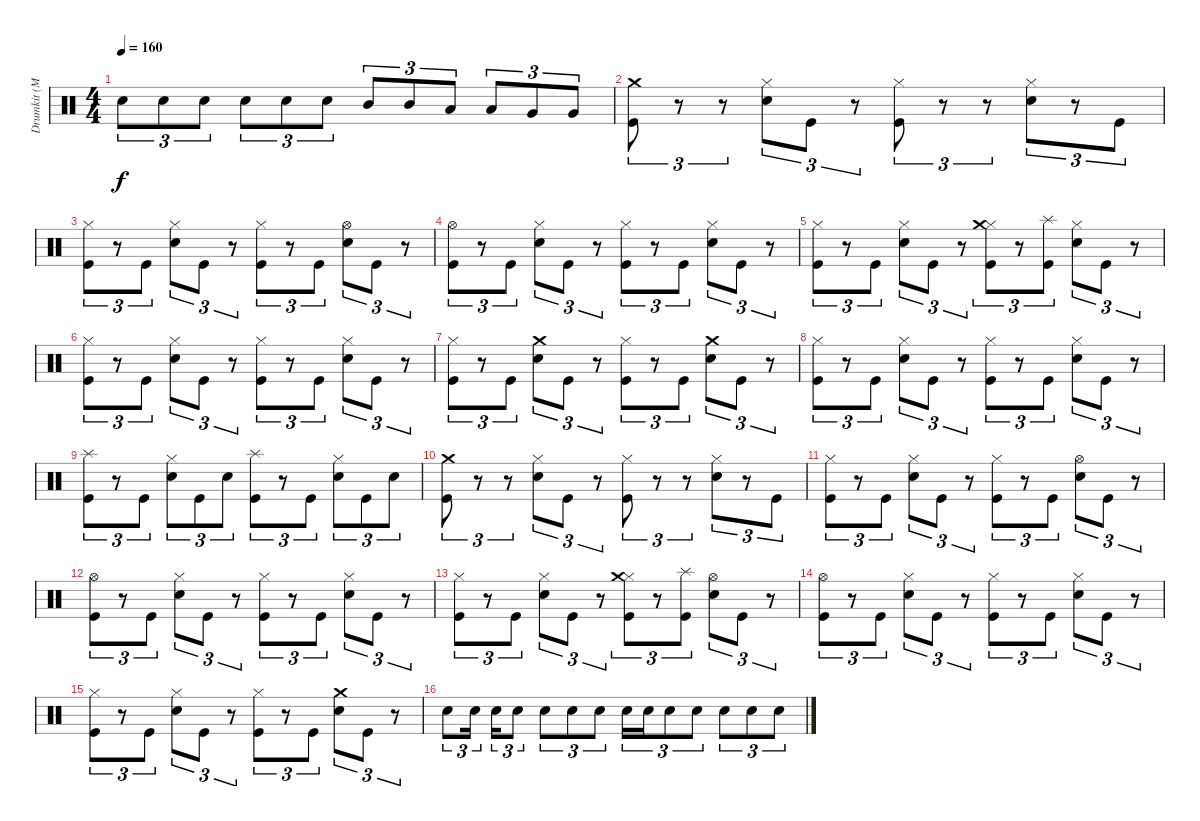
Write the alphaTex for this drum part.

\track ("Drumkit (McBrain)" "Drumkit (M") {instrument percussion}
\staff {score}
\articulation defaults
\ts (4 4)
\tempo 160
\clef neutral
\ks c "Snare (hit) 2".8{tu (3 2) dy f} "Snare (hit) 2".8{tu (3 2)} "Snare (hit) 2".8{tu (3 2)} "Snare (hit) 2".8{tu (3 2)} "Snare (hit) 2".8{tu (3 2)} "Snare (hit) 2".8{tu (3 2)} "Mid Tom (hit)".8{tu (3 2)} "Mid Tom (hit)".8{tu (3 2)} "Low Tom (hit)".8{tu (3 2)} "Low Tom (hit)".8{tu (3 2)} "Very Low Tom (hit)".8{tu (3 2)} "Very Low Tom (hit)".8{tu (3 2)}
|
("Crash medium (hit)" "Kick (hit)").8{tu (3 2)} r.8{tu (3 2)} r.8{tu (3 2)} ("Hi-Hat (closed)" "Snare (hit) 2").8{tu (3 2)} "Kick (hit)".8{tu (3 2)} r.8{tu (3 2)} ("Hi-Hat (closed)" "Kick (hit)").8{tu (3 2)} r.8{tu (3 2)} r.8{tu (3 2)} ("Hi-Hat (closed)" "Snare (hit) 2").8{tu (3 2)} r.8{tu (3 2)} "Kick (hit)".8{tu (3 2)} |
("Hi-Hat (closed)" "Kick (hit)").8{tu (3 2)} r.8{tu (3 2)} "Kick (hit)".8{tu (3 2)} ("Hi-Hat (closed)" "Snare (hit) 2").8{tu (3 2)} "Kick (hit)".8{tu (3 2)} r.8{tu (3 2)} ("Hi-Hat (closed)" "Kick (hit)").8{tu (3 2)} r.8{tu (3 2)} "Kick (hit)".8{tu (3 2)} ("Snare (hit) 2" "Hi-Hat (open)").8{tu (3 2)} "Kick (hit)".8{tu (3 2)} r.8{tu (3 2)} |
("Hi-Hat (open)" "Kick (hit)").8{tu (3 2)} r.8{tu (3 2)} "Kick (hit)".8{tu (3 2)} ("Hi-Hat (closed)" "Snare (hit) 2").8{tu (3 2)} "Kick (hit)".8{tu (3 2)} r.8{tu (3 2)} ("Hi-Hat (closed)" "Kick (hit)").8{tu (3 2)} r.8{tu (3 2)} "Kick (hit)".8{tu (3 2)} ("Hi-Hat (closed)" "Snare (hit) 2").8{tu (3 2)} "Kick (hit)".8{tu (3 2)} r.8{tu (3 2)} |
("Hi-Hat (closed)" "Kick (hit)").8{tu (3 2)} r.8{tu (3 2)} "Kick (hit)".8{tu (3 2)} ("Hi-Hat (closed)" "Snare (hit) 2").8{tu (3 2)} "Kick (hit)".8{tu (3 2)} r.8{tu (3 2)} ("Hi-Hat (closed)" "Kick (hit)" "Crash medium (hit)").8{tu (3 2)} r.8{tu (3 2)} ("Kick (hit)" "Splash (hit)").8{tu (3 2)} ("Hi-Hat (closed)" "Snare (hit) 2").8{tu (3 2)} "Kick (hit)".8{tu (3 2)} r.8{tu (3 2)} |
("Hi-Hat (closed)" "Kick (hit)").8{tu (3 2)} r.8{tu (3 2)} "Kick (hit)".8{tu (3 2)} ("Hi-Hat (closed)" "Snare (hit) 2").8{tu (3 2)} "Kick (hit)".8{tu (3 2)} r.8{tu (3 2)} ("Hi-Hat (closed)" "Kick (hit)").8{tu (3 2)} r.8{tu (3 2)} "Kick (hit)".8{tu (3 2)} ("Hi-Hat (closed)" "Snare (hit) 2").8{tu (3 2)} "Kick (hit)".8{tu (3 2)} r.8{tu (3 2)} |
("Hi-Hat (closed)" "Kick (hit)").8{tu (3 2)} r.8{tu (3 2)} "Kick (hit)".8{tu (3 2)} ("Snare (hit) 2" "Crash medium (hit)").8{tu (3 2)} "Kick (hit)".8{tu (3 2)} r.8{tu (3 2)} ("Hi-Hat (closed)" "Kick (hit)").8{tu (3 2)} r.8{tu (3 2)} "Kick (hit)".8{tu (3 2)} ("Snare (hit) 2" "Crash medium (hit)").8{tu (3 2)} "Kick (hit)".8{tu (3 2)} r.8{tu (3 2)} |
("Hi-Hat (closed)" "Kick (hit)").8{tu (3 2)} r.8{tu (3 2)} "Kick (hit)".8{tu (3 2)} ("Hi-Hat (closed)" "Snare (hit) 2").8{tu (3 2)} "Kick (hit)".8{tu (3 2)} r.8{tu (3 2)} ("Hi-Hat (closed)" "Kick (hit)").8{tu (3 2)} r.8{tu (3 2)} "Kick (hit)".8{tu (3 2)} ("Hi-Hat (closed)" "Snare (hit) 2").8{tu (3 2)} "Kick (hit)".8{tu (3 2)} r.8{tu (3 2)} |
("Kick (hit)" "Splash (hit)").8{tu (3 2)} r.8{tu (3 2)} "Kick (hit)".8{tu (3 2)} ("Hi-Hat (closed)" "Snare (hit) 2").8{tu (3 2)} "Kick (hit)".8{tu (3 2)} "Snare (hit) 2".8{tu (3 2)} ("Kick (hit)" "Splash (hit)").8{tu (3 2)} r.8{tu (3 2)} "Kick (hit)".8{tu (3 2)} ("Hi-Hat (closed)" "Snare (hit) 2").8{tu (3 2)} "Kick (hit)".8{tu (3 2)} "Snare (hit) 2".8{tu (3 2)} |
("Crash medium (hit)" "Kick (hit)").8{tu (3 2)} r.8{tu (3 2)} r.8{tu (3 2)} ("Hi-Hat (closed)" "Snare (hit) 2").8{tu (3 2)} "Kick (hit)".8{tu (3 2)} r.8{tu (3 2)} ("Hi-Hat (closed)" "Kick (hit)").8{tu (3 2)} r.8{tu (3 2)} r.8{tu (3 2)} ("Hi-Hat (closed)" "Snare (hit) 2").8{tu (3 2)} r.8{tu (3 2)} "Kick (hit)".8{tu (3 2)} |
("Hi-Hat (closed)" "Kick (hit)").8{tu (3 2)} r.8{tu (3 2)} "Kick (hit)".8{tu (3 2)} ("Hi-Hat (closed)" "Snare (hit) 2").8{tu (3 2)} "Kick (hit)".8{tu (3 2)} r.8{tu (3 2)} ("Hi-Hat (closed)" "Kick (hit)").8{tu (3 2)} r.8{tu (3 2)} "Kick (hit)".8{tu (3 2)} ("Snare (hit) 2" "Hi-Hat (open)").8{tu (3 2)} "Kick (hit)".8{tu (3 2)} r.8{tu (3 2)} |
("Hi-Hat (open)" "Kick (hit)").8{tu (3 2)} r.8{tu (3 2)} "Kick (hit)".8{tu (3 2)} ("Hi-Hat (closed)" "Snare (hit) 2").8{tu (3 2)} "Kick (hit)".8{tu (3 2)} r.8{tu (3 2)} ("Hi-Hat (closed)" "Kick (hit)").8{tu (3 2)} r.8{tu (3 2)} "Kick (hit)".8{tu (3 2)} ("Hi-Hat (closed)" "Snare (hit) 2").8{tu (3 2)} "Kick (hit)".8{tu (3 2)} r.8{tu (3 2)} |
("Hi-Hat (closed)" "Kick (hit)").8{tu (3 2)} r.8{tu (3 2)} "Kick (hit)".8{tu (3 2)} ("Hi-Hat (closed)" "Snare (hit) 2").8{tu (3 2)} "Kick (hit)".8{tu (3 2)} r.8{tu (3 2)} ("Hi-Hat (closed)" "Kick (hit)" "Crash medium (hit)").8{tu (3 2)} r.8{tu (3 2)} ("Kick (hit)" "Splash (hit)").8{tu (3 2)} ("Hi-Hat (open)" "Snare (hit) 2").8{tu (3 2)} "Kick (hit)".8{tu (3 2)} r.8{tu (3 2)} |
("Hi-Hat (open)" "Kick (hit)").8{tu (3 2)} r.8{tu (3 2)} "Kick (hit)".8{tu (3 2)} ("Hi-Hat (closed)" "Snare (hit) 2").8{tu (3 2)} "Kick (hit)".8{tu (3 2)} r.8{tu (3 2)} ("Hi-Hat (closed)" "Kick (hit)").8{tu (3 2)} r.8{tu (3 2)} "Kick (hit)".8{tu (3 2)} ("Hi-Hat (closed)" "Snare (hit) 2").8{tu (3 2)} "Kick (hit)".8{tu (3 2)} r.8{tu (3 2)} |
("Hi-Hat (closed)" "Kick (hit)").8{tu (3 2)} r.8{tu (3 2)} "Kick (hit)".8{tu (3 2)} ("Snare (hit) 2" "Hi-Hat (closed)").8{tu (3 2)} "Kick (hit)".8{tu (3 2)} r.8{tu (3 2)} ("Hi-Hat (closed)" "Kick (hit)").8{tu (3 2)} r.8{tu (3 2)} "Kick (hit)".8{tu (3 2)} ("Snare (hit) 2" "Crash medium (hit)").8{tu (3 2)} "Kick (hit)".8{tu (3 2)} r.8{tu (3 2)} |
"Snare (hit) 2".8{tu (3 2)} "Snare (hit) 2".16{tu (3 2)} "Snare (hit) 2".16{tu (3 2)} "Snare (hit) 2".8{tu (3 2)} "Snare (hit) 2".8{tu (3 2)} "Snare (hit) 2".8{tu (3 2)} "Snare (hit) 2".8{tu (3 2)} "Snare (hit) 2".16{tu (3 2)} "Snare (hit) 2".16{tu (3 2)} "Snare (hit) 2".8{tu (3 2)} "Snare (hit) 2".8{tu (3 2)} "Snare (hit) 2".8{tu (3 2)} "Snare (hit) 2".8{tu (3 2)} "Snare (hit) 2".8{tu (3 2)}
